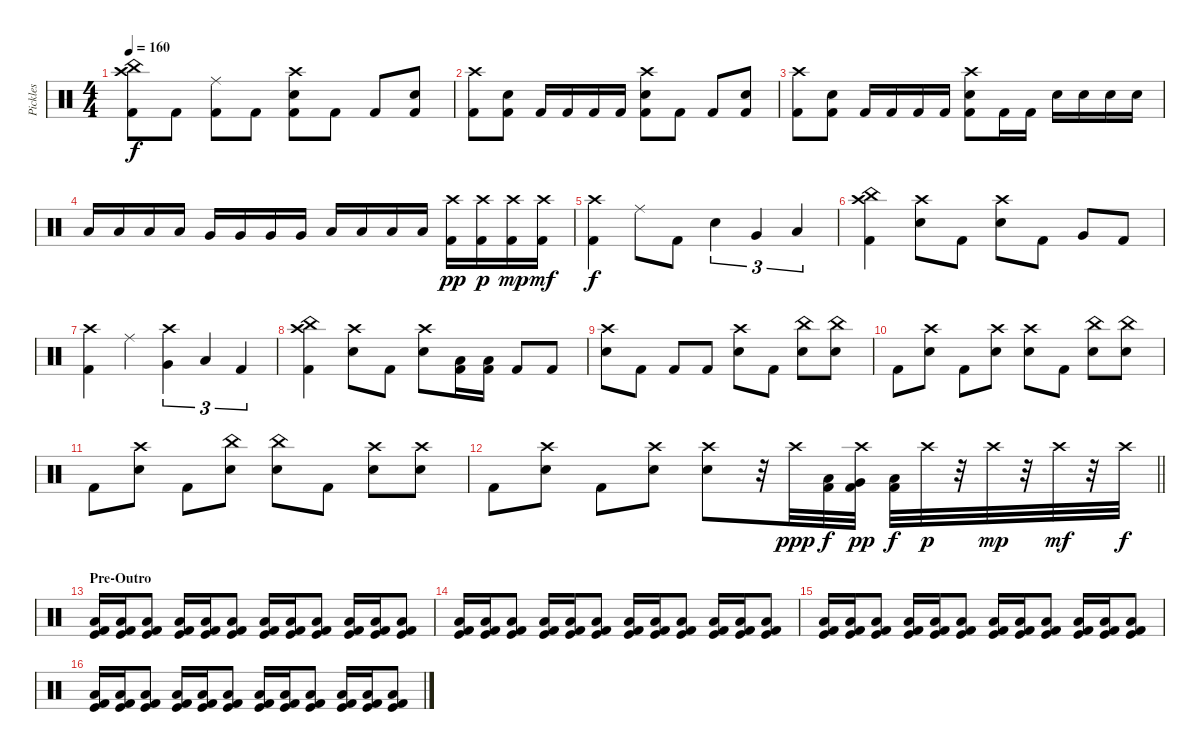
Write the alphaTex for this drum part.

\track ("Pickles" "Pickles") {instrument percussion}
\staff {score}
\articulation defaults
\ts (4 4)
\tempo 160
\clef neutral
\ks c
("Crash high (hit)" "China (hit)" "Kick (hit) 2").8{dy f} "Kick (hit) 2".8 ("Ride (middle)" "Kick (hit) 2").8 "Kick (hit) 2".8 ("Crash high (hit)" "Electric Snare (hit)" "Kick (hit) 2").8 "Kick (hit) 2".8 "Kick (hit) 2".8 ("Electric Snare (hit)" "Kick (hit) 2").8 |
("Crash high (hit)" "Kick (hit) 2").8 ("Electric Snare (hit)" "Kick (hit) 2").8 "Kick (hit) 2".16 "Kick (hit) 2".16 "Kick (hit) 2".16 "Kick (hit) 2".16 ("Crash high (hit)" "Electric Snare (hit)" "Kick (hit) 2").8 "Kick (hit) 2".8 "Kick (hit) 2".8 ("Electric Snare (hit)" "Kick (hit) 2").8 |
("Crash high (hit)" "Kick (hit) 2").8 ("Electric Snare (hit)" "Kick (hit) 2").8 "Kick (hit) 2".16 "Kick (hit) 2".16 "Kick (hit) 2".16 "Kick (hit) 2".16 ("Crash high (hit)" "Electric Snare (hit)" "Kick (hit) 2").8 "Kick (hit) 2".16 "Kick (hit) 2".16 "Electric Snare (hit)".16 "Electric Snare (hit)".16 "Electric Snare (hit)".16 "Electric Snare (hit)".16 |
"Low Tom (hit)".16 "Low Tom (hit)".16 "Low Tom (hit)".16 "Low Tom (hit)".16 "Very Low Tom (hit)".16 "Very Low Tom (hit)".16 "Very Low Tom (hit)".16 "Very Low Tom (hit)".16 "Low Floor Tom (hit)".16 "Low Floor Tom (hit)".16 "Low Floor Tom (hit)".16 "Low Floor Tom (hit)".16 ("Crash high (hit)" "Kick (hit) 2").16{dy pp} ("Crash high (hit)" "Kick (hit) 2").16{dy p} ("Crash high (hit)" "Kick (hit) 2").16{dy mp} ("Crash high (hit)" "Kick (hit) 2").16{dy mf} |
("Crash high (hit)" "Kick (hit) 2").4{dy f} "Ride (middle)".8 "Kick (hit) 2".8 "Electric Snare (hit)".4{tu (3 2)} "Very Low Tom (hit)".4{tu (3 2)} "Low Floor Tom (hit)".4{tu (3 2)} |
("Crash high (hit)" "China (hit)" "Kick (hit) 2").4 ("Crash high (hit)" "Electric Snare (hit)").8 "Kick (hit) 2".8 ("Crash high (hit)" "Electric Snare (hit)").8 "Kick (hit) 2".8 "Very Low Tom (hit)".8 "Kick (hit) 2".8 |
("Crash high (hit)" "Kick (hit) 2").4 "Ride (middle)".4 ("Crash high (hit)" "Very Low Tom (hit)").4{tu (3 2)} "Low Floor Tom (hit)".4{tu (3 2)} "Kick (hit) 2".4{tu (3 2)} |
("Crash high (hit)" "China (hit)" "Kick (hit) 2").4 ("Crash high (hit)" "Electric Snare (hit)").8 "Kick (hit) 2".8 ("Crash high (hit)" "Electric Snare (hit)").8 ("Low Floor Tom (hit)" "Kick (hit) 2").16 ("Low Floor Tom (hit)" "Kick (hit) 2").16 "Kick (hit) 2".8 "Kick (hit) 2".8 |
("Crash high (hit)" "Electric Snare (hit)").8 "Kick (hit) 2".8 "Kick (hit) 2".8 "Kick (hit) 2".8 ("Crash high (hit)" "Electric Snare (hit)").8 "Kick (hit) 2".8 ("China (hit)" "Electric Snare (hit)").8 ("China (hit)" "Electric Snare (hit)").8 |
"Kick (hit) 2".8 ("Crash high (hit)" "Electric Snare (hit)").8 "Kick (hit) 2".8 ("Crash high (hit)" "Electric Snare (hit)").8 ("Crash high (hit)" "Electric Snare (hit)").8 "Kick (hit) 2".8 ("China (hit)" "Electric Snare (hit)").8 ("China (hit)" "Electric Snare (hit)").8 |
"Kick (hit) 2".8 ("Crash high (hit)" "Electric Snare (hit)").8 "Kick (hit) 2".8 ("China (hit)" "Electric Snare (hit)").8 ("China (hit)" "Electric Snare (hit)").8 "Kick (hit) 2".8 ("Crash high (hit)" "Electric Snare (hit)").8 ("Crash high (hit)" "Electric Snare (hit)").8 |
\barLineRight lightlight "Kick (hit) 2".8
("Crash high (hit)" "Electric Snare (hit)").8 "Kick (hit) 2".8 ("Crash high (hit)" "Electric Snare (hit)").8 ("Crash high (hit)" "Electric Snare (hit)").8 r.32 "Crash high (hit)".32{dy ppp} ("Low Tom (hit)" "Kick (hit) 2").32{dy f} ("Crash high (hit)" "Very Low Tom (hit)" "Kick (hit) 2").32{dy pp} ("Low Floor Tom (hit)" "Kick (hit) 2").32{dy f} "Crash high (hit)".32{dy p} r.32 "Crash high (hit)".32{dy mp} r.32 "Crash high (hit)".32{dy mf} r.32 "Crash high (hit)".32{dy f} |
\section ("" "Pre-Outro")
("Kick (hit) 2" "Kick (hit)" "Low Tom (hit)").16 ("Kick (hit) 2" "Kick (hit)" "Low Tom (hit)").16 ("Kick (hit) 2" "Kick (hit)" "Low Tom (hit)").8 ("Kick (hit) 2" "Kick (hit)" "Low Tom (hit)").16 ("Kick (hit) 2" "Kick (hit)" "Low Tom (hit)").16 ("Kick (hit) 2" "Kick (hit)" "Low Tom (hit)").8 ("Kick (hit) 2" "Kick (hit)" "Low Tom (hit)").16 ("Kick (hit) 2" "Kick (hit)" "Low Tom (hit)").16 ("Kick (hit) 2" "Kick (hit)" "Low Tom (hit)").8 ("Kick (hit) 2" "Kick (hit)" "Low Tom (hit)").16 ("Kick (hit) 2" "Kick (hit)" "Low Tom (hit)").16 ("Kick (hit) 2" "Kick (hit)" "Low Tom (hit)").8 |
("Kick (hit) 2" "Kick (hit)" "Low Tom (hit)").16 ("Kick (hit) 2" "Kick (hit)" "Low Tom (hit)").16 ("Kick (hit) 2" "Kick (hit)" "Low Tom (hit)").8 ("Kick (hit) 2" "Kick (hit)" "Low Tom (hit)").16 ("Kick (hit) 2" "Kick (hit)" "Low Tom (hit)").16 ("Kick (hit) 2" "Kick (hit)" "Low Tom (hit)").8 ("Kick (hit) 2" "Kick (hit)" "Low Tom (hit)").16 ("Kick (hit) 2" "Kick (hit)" "Low Tom (hit)").16 ("Kick (hit) 2" "Kick (hit)" "Low Tom (hit)").8 ("Kick (hit) 2" "Kick (hit)" "Low Tom (hit)").16 ("Kick (hit) 2" "Kick (hit)" "Low Tom (hit)").16 ("Kick (hit) 2" "Kick (hit)" "Low Tom (hit)").8 |
("Kick (hit) 2" "Kick (hit)" "Low Tom (hit)").16 ("Kick (hit) 2" "Kick (hit)" "Low Tom (hit)").16 ("Kick (hit) 2" "Kick (hit)" "Low Tom (hit)").8 ("Kick (hit) 2" "Kick (hit)" "Low Tom (hit)").16 ("Kick (hit) 2" "Kick (hit)" "Low Tom (hit)").16 ("Kick (hit) 2" "Kick (hit)" "Low Tom (hit)").8 ("Kick (hit) 2" "Kick (hit)" "Low Tom (hit)").16 ("Kick (hit) 2" "Kick (hit)" "Low Tom (hit)").16 ("Kick (hit) 2" "Kick (hit)" "Low Tom (hit)").8 ("Kick (hit) 2" "Kick (hit)" "Low Tom (hit)").16 ("Kick (hit) 2" "Kick (hit)" "Low Tom (hit)").16 ("Kick (hit) 2" "Kick (hit)" "Low Tom (hit)").8 |
("Kick (hit) 2" "Kick (hit)" "Low Tom (hit)").16 ("Kick (hit) 2" "Kick (hit)" "Low Tom (hit)").16 ("Kick (hit) 2" "Kick (hit)" "Low Tom (hit)").8 ("Kick (hit) 2" "Kick (hit)" "Low Tom (hit)").16 ("Kick (hit) 2" "Kick (hit)" "Low Tom (hit)").16 ("Kick (hit) 2" "Kick (hit)" "Low Tom (hit)").8 ("Kick (hit) 2" "Kick (hit)" "Low Tom (hit)").16 ("Kick (hit) 2" "Kick (hit)" "Low Tom (hit)").16 ("Kick (hit) 2" "Kick (hit)" "Low Tom (hit)").8 ("Kick (hit) 2" "Kick (hit)" "Low Tom (hit)").16 ("Kick (hit) 2" "Kick (hit)" "Low Tom (hit)").16 ("Kick (hit) 2" "Kick (hit)" "Low Tom (hit)").8
